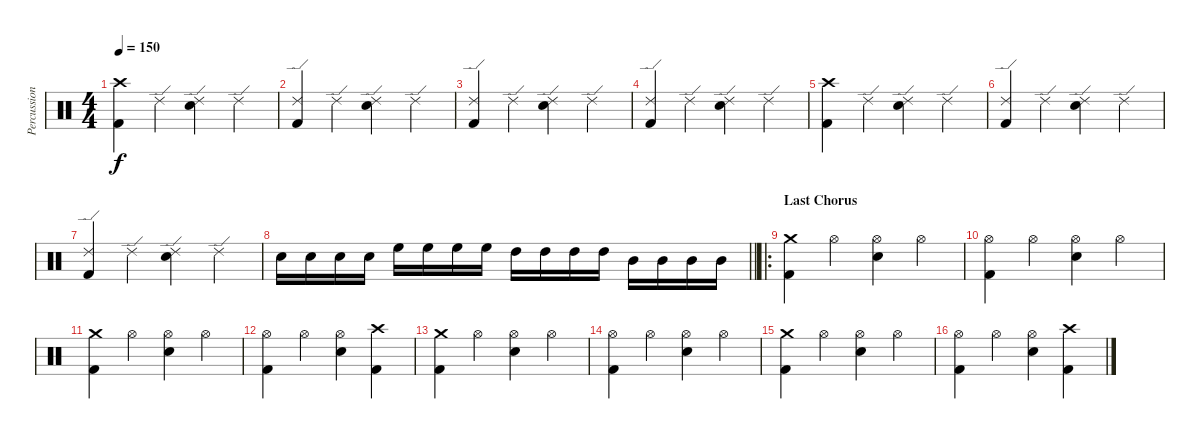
\track ("Percussion" "Percussion") {instrument percussion}
\staff {score}
\articulation defaults
\ts (4 4)
\tempo 150
\clef neutral
\ks c
("Crash high (hit)" "Kick (hit) 2").4{dy f} "Ride (edge) 2".4 ("Ride (edge) 2" "Electric Snare (hit)").4 "Ride (edge) 2".4 |
("Ride (edge) 2" "Kick (hit) 2").4 "Ride (edge) 2".4 ("Ride (edge) 2" "Electric Snare (hit)").4 "Ride (edge) 2".4 |
("Ride (edge) 2" "Kick (hit) 2").4 "Ride (edge) 2".4 ("Ride (edge) 2" "Electric Snare (hit)").4 "Ride (edge) 2".4 |
("Ride (edge) 2" "Kick (hit) 2").4 "Ride (edge) 2".4 ("Ride (edge) 2" "Electric Snare (hit)").4 "Ride (edge) 2".4 |
("Crash high (hit)" "Kick (hit) 2").4 "Ride (edge) 2".4 ("Ride (edge) 2" "Electric Snare (hit)").4 "Ride (edge) 2".4 |
("Ride (edge) 2" "Kick (hit) 2").4 "Ride (edge) 2".4 ("Ride (edge) 2" "Electric Snare (hit)").4 "Ride (edge) 2".4 |
("Ride (edge) 2" "Kick (hit) 2").4 "Ride (edge) 2".4 ("Ride (edge) 2" "Electric Snare (hit)").4 "Ride (edge) 2".4 |
\barLineRight lightlight "Electric Snare (hit)".16 "Electric Snare (hit)".16 "Electric Snare (hit)".16 "Electric Snare (hit)".16 "High Floor Tom (hit)".16 "High Floor Tom (hit)".16 "High Floor Tom (hit)".16 "High Floor Tom (hit)".16 "High Tom (hit)".16 "High Tom (hit)".16 "High Tom (hit)".16 "High Tom (hit)".16 "Mid Tom (hit)".16 "Mid Tom (hit)".16 "Mid Tom (hit)".16 "Mid Tom (hit)".16
|
\ro
\section ("" "Last Chorus")
("Crash medium (hit)" "Kick (hit) 2").4 "Hi-Hat (open)".4 ("Hi-Hat (open)" "Electric Snare (hit)").4 "Hi-Hat (open)".4 |
("Hi-Hat (open)" "Kick (hit) 2").4 "Hi-Hat (open)".4 ("Hi-Hat (open)" "Electric Snare (hit)").4 "Hi-Hat (open)".4 |
("Crash medium (hit)" "Kick (hit) 2").4 "Hi-Hat (open)".4 ("Hi-Hat (open)" "Electric Snare (hit)").4 "Hi-Hat (open)".4 |
("Hi-Hat (open)" "Kick (hit) 2").4 "Hi-Hat (open)".4 ("Hi-Hat (open)" "Electric Snare (hit)").4 ("Crash high (hit)" "Kick (hit) 2").4 |
("Crash medium (hit)" "Kick (hit) 2").4 "Hi-Hat (open)".4 ("Hi-Hat (open)" "Electric Snare (hit)").4 "Hi-Hat (open)".4 |
("Hi-Hat (open)" "Kick (hit) 2").4 "Hi-Hat (open)".4 ("Hi-Hat (open)" "Electric Snare (hit)").4 "Hi-Hat (open)".4 |
("Crash medium (hit)" "Kick (hit) 2").4 "Hi-Hat (open)".4 ("Hi-Hat (open)" "Electric Snare (hit)").4 "Hi-Hat (open)".4 |
("Hi-Hat (open)" "Kick (hit) 2").4 "Hi-Hat (open)".4 ("Hi-Hat (open)" "Electric Snare (hit)").4 ("Crash high (hit)" "Kick (hit) 2").4
